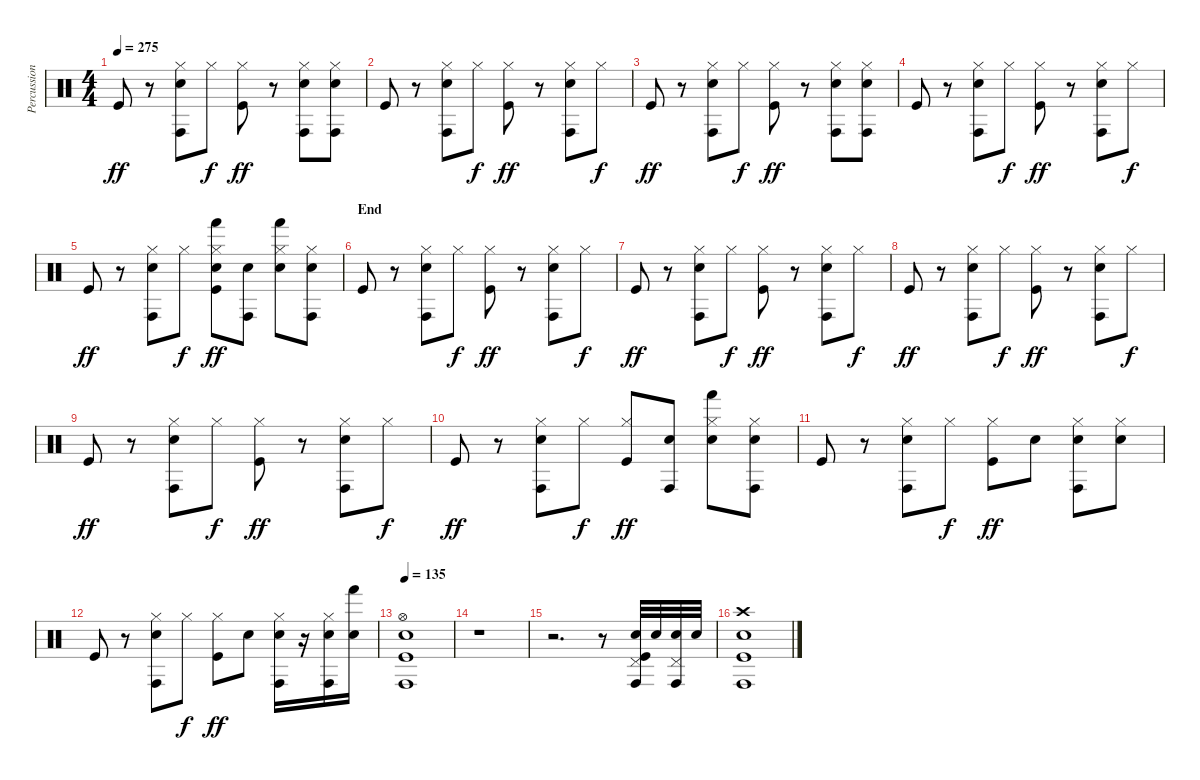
\track ("Percussion" "Percussion") {instrument percussion}
\staff {score}
\articulation defaults
\ts (4 4)
\tempo 275
\clef neutral
\ks c "Kick (hit)".8{dy ff}
r.8 ("Hi-Hat (closed)" "Conga high (hit)" "Electric Snare (hit)").8 "Hi-Hat (closed)".8{dy f} ("Hi-Hat (closed)" "Kick (hit)").8{dy ff} r.8 ("Hi-Hat (closed)" "Conga high (hit)" "Electric Snare (hit)").8 ("Hi-Hat (closed)" "Conga high (hit)" "Electric Snare (hit)").8 |
"Kick (hit)".8 r.8 ("Hi-Hat (closed)" "Conga high (hit)" "Electric Snare (hit)").8 "Hi-Hat (closed)".8{dy f} ("Hi-Hat (closed)" "Kick (hit)").8{dy ff} r.8 ("Hi-Hat (closed)" "Conga high (hit)" "Electric Snare (hit)").8 "Hi-Hat (closed)".8{dy f} |
"Kick (hit)".8{dy ff} r.8 ("Hi-Hat (closed)" "Conga high (hit)" "Electric Snare (hit)").8 "Hi-Hat (closed)".8{dy f} ("Hi-Hat (closed)" "Kick (hit)").8{dy ff} r.8 ("Hi-Hat (closed)" "Conga high (hit)" "Electric Snare (hit)").8 ("Hi-Hat (closed)" "Conga high (hit)" "Electric Snare (hit)").8 |
"Kick (hit)".8 r.8 ("Hi-Hat (closed)" "Conga high (hit)" "Electric Snare (hit)").8 "Hi-Hat (closed)".8{dy f} ("Hi-Hat (closed)" "Kick (hit)").8{dy ff} r.8 ("Hi-Hat (closed)" "Conga high (hit)" "Electric Snare (hit)").8 "Hi-Hat (closed)".8{dy f} |
"Kick (hit)".8{dy ff} r.8 ("Hi-Hat (closed)" "Conga high (hit)" "Electric Snare (hit)").8 "Hi-Hat (closed)".8{dy f} ("Hi-Hat (closed)" "Hand (hit)" "Electric Snare (hit)" "Kick (hit)").8{dy ff} ("Conga high (hit)" "Electric Snare (hit)").8 ("Hi-Hat (closed)" "Hand (hit)" "Electric Snare (hit)").8 ("Hi-Hat (closed)" "Conga high (hit)" "Electric Snare (hit)").8 |
\section ("" "End")
"Kick (hit)".8 r.8 ("Hi-Hat (closed)" "Conga high (hit)" "Electric Snare (hit)").8 "Hi-Hat (closed)".8{dy f} ("Hi-Hat (closed)" "Kick (hit)").8{dy ff} r.8 ("Hi-Hat (closed)" "Conga high (hit)" "Electric Snare (hit)").8 "Hi-Hat (closed)".8{dy f} |
"Kick (hit)".8{dy ff} r.8 ("Hi-Hat (closed)" "Conga high (hit)" "Electric Snare (hit)").8 "Hi-Hat (closed)".8{dy f} ("Hi-Hat (closed)" "Kick (hit)").8{dy ff} r.8 ("Hi-Hat (closed)" "Conga high (hit)" "Electric Snare (hit)").8 "Hi-Hat (closed)".8{dy f} |
"Kick (hit)".8{dy ff} r.8 ("Hi-Hat (closed)" "Conga high (hit)" "Electric Snare (hit)").8 "Hi-Hat (closed)".8{dy f} ("Hi-Hat (closed)" "Kick (hit)").8{dy ff} r.8 ("Hi-Hat (closed)" "Conga high (hit)" "Electric Snare (hit)").8 "Hi-Hat (closed)".8{dy f} |
"Kick (hit)".8{dy ff} r.8 ("Hi-Hat (closed)" "Conga high (hit)" "Electric Snare (hit)").8 "Hi-Hat (closed)".8{dy f} ("Hi-Hat (closed)" "Kick (hit)").8{dy ff} r.8 ("Hi-Hat (closed)" "Conga high (hit)" "Electric Snare (hit)").8 "Hi-Hat (closed)".8{dy f} |
"Kick (hit)".8{dy ff} r.8 ("Hi-Hat (closed)" "Conga high (hit)" "Electric Snare (hit)").8 "Hi-Hat (closed)".8{dy f} ("Hi-Hat (closed)" "Kick (hit)").8{dy ff} ("Conga high (hit)" "Electric Snare (hit)").8 ("Hi-Hat (closed)" "Hand (hit)" "Electric Snare (hit)").8 ("Hi-Hat (closed)" "Conga high (hit)" "Electric Snare (hit)").8 |
"Kick (hit)".8 r.8 ("Hi-Hat (closed)" "Conga high (hit)" "Electric Snare (hit)").8 "Hi-Hat (closed)".8{dy f} ("Hi-Hat (closed)" "Kick (hit)").8{dy ff} "Electric Snare (hit)".8 ("Hi-Hat (closed)" "Conga high (hit)" "Electric Snare (hit)").8 ("Hi-Hat (closed)" "Electric Snare (hit)").8 |
"Kick (hit)".8 r.8 ("Hi-Hat (closed)" "Conga high (hit)" "Electric Snare (hit)").8 "Hi-Hat (closed)".8{dy f} ("Hi-Hat (closed)" "Kick (hit)").8{dy ff} "Electric Snare (hit)".8 ("Hi-Hat (closed)" "Conga high (hit)" "Electric Snare (hit)").16 r.16 ("Hi-Hat (closed)" "Conga high (hit)" "Electric Snare (hit)").16 ("Hand (hit)" "Electric Snare (hit)").16 |
\tempo 135
("Hi-Hat (open)" "Conga high (hit)" "Electric Snare (hit)" "Kick (hit)").1 |
r.1 |
r.2{d} r.8 ("Pedal Hi-Hat (hit)" "Conga high (hit)" "Electric Snare (hit)" "Kick (hit)").32 "Electric Snare (hit)".32 ("Pedal Hi-Hat (hit)" "Conga high (hit)" "Electric Snare (hit)").32 "Electric Snare (hit)".32 |
("Crash high (hit)" "Conga high (hit)" "Electric Snare (hit)" "Kick (hit)").1
